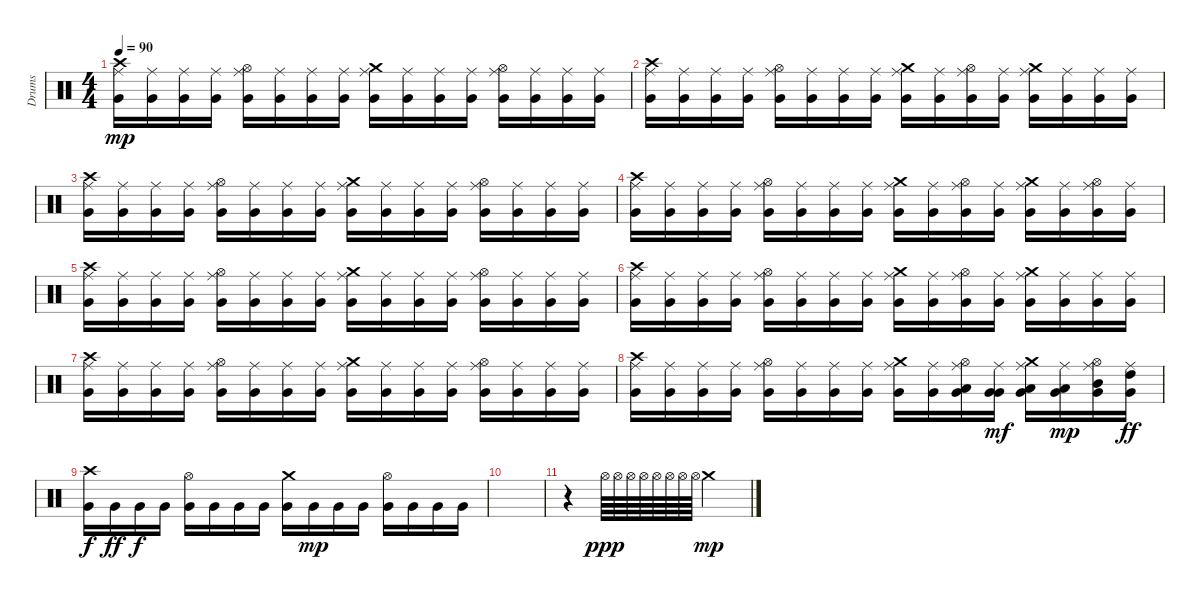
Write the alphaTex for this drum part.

\track ("Drums" "Drums") {instrument percussion}
\staff {score}
\articulation defaults
\ts (4 4)
\tempo 90
\clef neutral
\ks c
("Crash high (hit)" "Ride (middle)" "Very Low Tom (hit)").16{dy mp} ("Ride (middle)" "Very Low Tom (hit)").16 ("Ride (middle)" "Very Low Tom (hit)").16 ("Ride (middle)" "Very Low Tom (hit)").16 ("Hi-Hat (open)" "Ride (middle)" "Very Low Tom (hit)").16 ("Ride (middle)" "Very Low Tom (hit)").16 ("Ride (middle)" "Very Low Tom (hit)").16 ("Ride (middle)" "Very Low Tom (hit)").16 ("Crash medium (hit)" "Ride (middle)" "Very Low Tom (hit)").16 ("Ride (middle)" "Very Low Tom (hit)").16 ("Ride (middle)" "Very Low Tom (hit)").16 ("Ride (middle)" "Very Low Tom (hit)").16 ("Hi-Hat (open)" "Ride (middle)" "Very Low Tom (hit)").16 ("Ride (middle)" "Very Low Tom (hit)").16 ("Ride (middle)" "Very Low Tom (hit)").16 ("Ride (middle)" "Very Low Tom (hit)").16 |
("Crash high (hit)" "Ride (middle)" "Very Low Tom (hit)").16 ("Ride (middle)" "Very Low Tom (hit)").16 ("Ride (middle)" "Very Low Tom (hit)").16 ("Ride (middle)" "Very Low Tom (hit)").16 ("Hi-Hat (open)" "Ride (middle)" "Very Low Tom (hit)").16 ("Ride (middle)" "Very Low Tom (hit)").16 ("Ride (middle)" "Very Low Tom (hit)").16 ("Ride (middle)" "Very Low Tom (hit)").16 ("Crash medium (hit)" "Ride (middle)" "Very Low Tom (hit)").16 ("Ride (middle)" "Very Low Tom (hit)").16 ("Hi-Hat (open)" "Ride (middle)" "Very Low Tom (hit)").16 ("Ride (middle)" "Very Low Tom (hit)").16 ("Crash medium (hit)" "Ride (middle)" "Very Low Tom (hit)").16 ("Ride (middle)" "Very Low Tom (hit)").16 ("Ride (middle)" "Very Low Tom (hit)").16 ("Ride (middle)" "Very Low Tom (hit)").16 |
("Crash high (hit)" "Ride (middle)" "Very Low Tom (hit)").16 ("Ride (middle)" "Very Low Tom (hit)").16 ("Ride (middle)" "Very Low Tom (hit)").16 ("Ride (middle)" "Very Low Tom (hit)").16 ("Hi-Hat (open)" "Ride (middle)" "Very Low Tom (hit)").16 ("Ride (middle)" "Very Low Tom (hit)").16 ("Ride (middle)" "Very Low Tom (hit)").16 ("Ride (middle)" "Very Low Tom (hit)").16 ("Crash medium (hit)" "Ride (middle)" "Very Low Tom (hit)").16 ("Ride (middle)" "Very Low Tom (hit)").16 ("Ride (middle)" "Very Low Tom (hit)").16 ("Ride (middle)" "Very Low Tom (hit)").16 ("Hi-Hat (open)" "Ride (middle)" "Very Low Tom (hit)").16 ("Ride (middle)" "Very Low Tom (hit)").16 ("Ride (middle)" "Very Low Tom (hit)").16 ("Ride (middle)" "Very Low Tom (hit)").16 |
("Crash high (hit)" "Ride (middle)" "Very Low Tom (hit)").16 ("Ride (middle)" "Very Low Tom (hit)").16 ("Ride (middle)" "Very Low Tom (hit)").16 ("Ride (middle)" "Very Low Tom (hit)").16 ("Hi-Hat (open)" "Ride (middle)" "Very Low Tom (hit)").16 ("Ride (middle)" "Very Low Tom (hit)").16 ("Ride (middle)" "Very Low Tom (hit)").16 ("Ride (middle)" "Very Low Tom (hit)").16 ("Crash medium (hit)" "Ride (middle)" "Very Low Tom (hit)").16 ("Ride (middle)" "Very Low Tom (hit)").16 ("Hi-Hat (open)" "Ride (middle)" "Very Low Tom (hit)").16 ("Ride (middle)" "Very Low Tom (hit)").16 ("Crash medium (hit)" "Ride (middle)" "Very Low Tom (hit)").16 ("Ride (middle)" "Very Low Tom (hit)").16 ("Hi-Hat (open)" "Ride (middle)" "Very Low Tom (hit)").16 ("Ride (middle)" "Very Low Tom (hit)").16 |
("Crash high (hit)" "Ride (middle)" "Very Low Tom (hit)").16 ("Ride (middle)" "Very Low Tom (hit)").16 ("Ride (middle)" "Very Low Tom (hit)").16 ("Ride (middle)" "Very Low Tom (hit)").16 ("Hi-Hat (open)" "Ride (middle)" "Very Low Tom (hit)").16 ("Ride (middle)" "Very Low Tom (hit)").16 ("Ride (middle)" "Very Low Tom (hit)").16 ("Ride (middle)" "Very Low Tom (hit)").16 ("Crash medium (hit)" "Ride (middle)" "Very Low Tom (hit)").16 ("Ride (middle)" "Very Low Tom (hit)").16 ("Ride (middle)" "Very Low Tom (hit)").16 ("Ride (middle)" "Very Low Tom (hit)").16 ("Hi-Hat (open)" "Ride (middle)" "Very Low Tom (hit)").16 ("Ride (middle)" "Very Low Tom (hit)").16 ("Ride (middle)" "Very Low Tom (hit)").16 ("Ride (middle)" "Very Low Tom (hit)").16 |
("Crash high (hit)" "Ride (middle)" "Very Low Tom (hit)").16 ("Ride (middle)" "Very Low Tom (hit)").16 ("Ride (middle)" "Very Low Tom (hit)").16 ("Ride (middle)" "Very Low Tom (hit)").16 ("Hi-Hat (open)" "Ride (middle)" "Very Low Tom (hit)").16 ("Ride (middle)" "Very Low Tom (hit)").16 ("Ride (middle)" "Very Low Tom (hit)").16 ("Ride (middle)" "Very Low Tom (hit)").16 ("Crash medium (hit)" "Ride (middle)" "Very Low Tom (hit)").16 ("Ride (middle)" "Very Low Tom (hit)").16 ("Hi-Hat (open)" "Ride (middle)" "Very Low Tom (hit)").16 ("Ride (middle)" "Very Low Tom (hit)").16 ("Crash medium (hit)" "Ride (middle)" "Very Low Tom (hit)").16 ("Ride (middle)" "Very Low Tom (hit)").16 ("Ride (middle)" "Very Low Tom (hit)").16 ("Ride (middle)" "Very Low Tom (hit)").16 |
("Crash high (hit)" "Ride (middle)" "Very Low Tom (hit)").16 ("Ride (middle)" "Very Low Tom (hit)").16 ("Ride (middle)" "Very Low Tom (hit)").16 ("Ride (middle)" "Very Low Tom (hit)").16 ("Hi-Hat (open)" "Ride (middle)" "Very Low Tom (hit)").16 ("Ride (middle)" "Very Low Tom (hit)").16 ("Ride (middle)" "Very Low Tom (hit)").16 ("Ride (middle)" "Very Low Tom (hit)").16 ("Crash medium (hit)" "Ride (middle)" "Very Low Tom (hit)").16 ("Ride (middle)" "Very Low Tom (hit)").16 ("Ride (middle)" "Very Low Tom (hit)").16 ("Ride (middle)" "Very Low Tom (hit)").16 ("Hi-Hat (open)" "Ride (middle)" "Very Low Tom (hit)").16 ("Ride (middle)" "Very Low Tom (hit)").16 ("Ride (middle)" "Very Low Tom (hit)").16 ("Ride (middle)" "Very Low Tom (hit)").16 |
("Crash high (hit)" "Ride (middle)" "Very Low Tom (hit)").16 ("Ride (middle)" "Very Low Tom (hit)").16 ("Ride (middle)" "Very Low Tom (hit)").16 ("Ride (middle)" "Very Low Tom (hit)").16 ("Hi-Hat (open)" "Ride (middle)" "Very Low Tom (hit)").16 ("Ride (middle)" "Very Low Tom (hit)").16 ("Ride (middle)" "Very Low Tom (hit)").16 ("Ride (middle)" "Very Low Tom (hit)").16 ("Crash medium (hit)" "Ride (middle)" "Very Low Tom (hit)").16 ("Ride (middle)" "Very Low Tom (hit)").16 ("Hi-Hat (open)" "Ride (middle)" "Very Low Tom (hit)" "Low Floor Tom (hit)").16 ("Ride (middle)" "Very Low Tom (hit)" "Very Low Tom (hit)").16{dy mf} ("Crash medium (hit)" "Ride (middle)" "Very Low Tom (hit)" "Low Tom (hit)").16 ("Ride (middle)" "Very Low Tom (hit)" "Low Tom (hit)").16{dy mp} ("Hi-Hat (open)" "Ride (middle)" "Very Low Tom (hit)" "Mid Tom (hit)").16 ("Ride (middle)" "Very Low Tom (hit)" "High Tom (hit)").16{dy ff} |
("Crash high (hit)" "Very Low Tom (hit)").16{dy f} "Very Low Tom (hit)".16{dy ff} "Very Low Tom (hit)".16{dy f} "Very Low Tom (hit)".16 ("Hi-Hat (open)" "Very Low Tom (hit)").16 "Very Low Tom (hit)".16 "Very Low Tom (hit)".16 "Very Low Tom (hit)".16 ("Crash medium (hit)" "Very Low Tom (hit)").16 "Very Low Tom (hit)".16{dy mp} "Very Low Tom (hit)".16 "Very Low Tom (hit)".16 ("Hi-Hat (open)" "Very Low Tom (hit)").16 "Very Low Tom (hit)".16 "Very Low Tom (hit)".16 "Very Low Tom (hit)".16 |
|
r.4 "Hi-Hat (open)".64{dy ppp} "Hi-Hat (open)".64 "Hi-Hat (open)".64 "Hi-Hat (open)".64 "Hi-Hat (open)".64 "Hi-Hat (open)".64 "Hi-Hat (open)".64 "Hi-Hat (open)".64 "Crash medium (hit)".2{dy mp}
